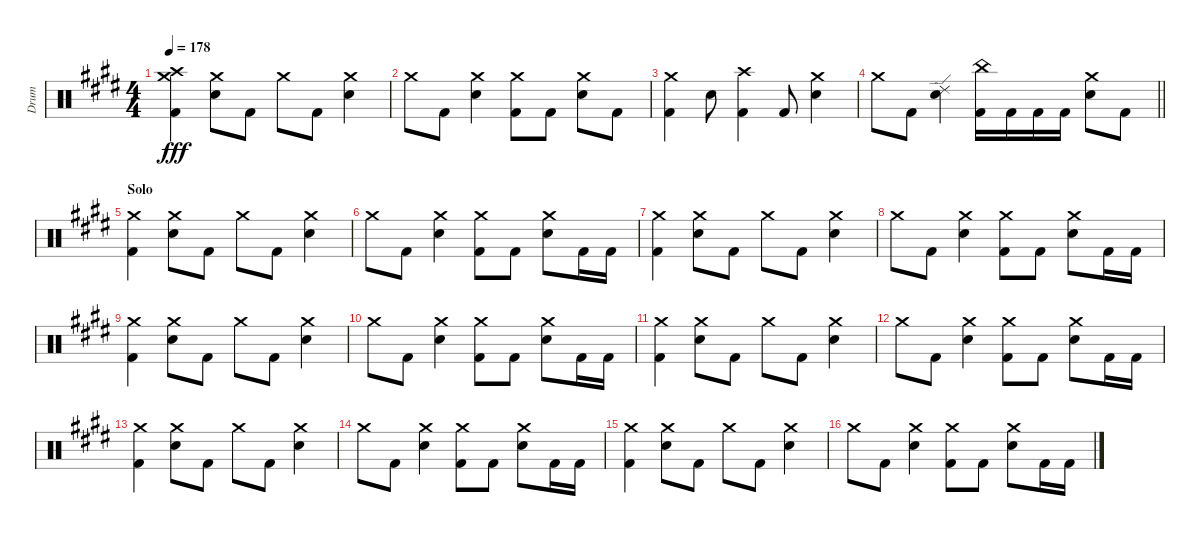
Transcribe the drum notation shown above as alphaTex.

\track ("Drum" "Drum") {instrument percussion}
\staff {score}
\articulation defaults
\ts (4 4)
\tempo 178
\clef neutral
\ks e
("Crash medium (hit)" "Crash high (hit)" "Kick (hit) 2").4{dy fff} ("Crash medium (hit)" "Electric Snare (hit)").8 "Kick (hit) 2".8 "Crash medium (hit)".8 "Kick (hit) 2".8 ("Crash medium (hit)" "Electric Snare (hit)").4 |
"Crash medium (hit)".8 "Kick (hit) 2".8 ("Crash medium (hit)" "Electric Snare (hit)").4 ("Crash medium (hit)" "Kick (hit) 2").8 "Kick (hit) 2".8 ("Crash medium (hit)" "Electric Snare (hit)").8 "Kick (hit) 2".8 |
("Crash medium (hit)" "Kick (hit) 2").4 "Electric Snare (hit)".8 ("Crash high (hit)" "Kick (hit) 2").4 "Kick (hit) 2".8 ("Crash medium (hit)" "Electric Snare (hit)").4 |
\barLineRight lightlight "Crash medium (hit)".8 "Kick (hit) 2".8
("Ride (edge) 2" "Electric Snare (hit)").4 ("China (hit)" "Kick (hit) 2").16 "Kick (hit) 2".16 "Kick (hit) 2".16 "Kick (hit) 2".16 ("Crash medium (hit)" "Electric Snare (hit)").8 "Kick (hit) 2".8 |
\section ("" "Solo")
("Crash medium (hit)" "Kick (hit) 2").4 ("Crash medium (hit)" "Electric Snare (hit)").8 "Kick (hit) 2".8 "Crash medium (hit)".8 "Kick (hit) 2".8 ("Crash medium (hit)" "Electric Snare (hit)").4 |
"Crash medium (hit)".8 "Kick (hit) 2".8 ("Crash medium (hit)" "Electric Snare (hit)").4 ("Crash medium (hit)" "Kick (hit) 2").8 "Kick (hit) 2".8 ("Crash medium (hit)" "Electric Snare (hit)").8 "Kick (hit) 2".16 "Kick (hit) 2".16 |
("Crash medium (hit)" "Kick (hit) 2").4 ("Crash medium (hit)" "Electric Snare (hit)").8 "Kick (hit) 2".8 "Crash medium (hit)".8 "Kick (hit) 2".8 ("Crash medium (hit)" "Electric Snare (hit)").4 |
"Crash medium (hit)".8 "Kick (hit) 2".8 ("Crash medium (hit)" "Electric Snare (hit)").4 ("Crash medium (hit)" "Kick (hit) 2").8 "Kick (hit) 2".8 ("Crash medium (hit)" "Electric Snare (hit)").8 "Kick (hit) 2".16 "Kick (hit) 2".16 |
("Crash medium (hit)" "Kick (hit) 2").4 ("Crash medium (hit)" "Electric Snare (hit)").8 "Kick (hit) 2".8 "Crash medium (hit)".8 "Kick (hit) 2".8 ("Crash medium (hit)" "Electric Snare (hit)").4 |
"Crash medium (hit)".8 "Kick (hit) 2".8 ("Crash medium (hit)" "Electric Snare (hit)").4 ("Crash medium (hit)" "Kick (hit) 2").8 "Kick (hit) 2".8 ("Crash medium (hit)" "Electric Snare (hit)").8 "Kick (hit) 2".16 "Kick (hit) 2".16 |
("Crash medium (hit)" "Kick (hit) 2").4 ("Crash medium (hit)" "Electric Snare (hit)").8 "Kick (hit) 2".8 "Crash medium (hit)".8 "Kick (hit) 2".8 ("Crash medium (hit)" "Electric Snare (hit)").4 |
"Crash medium (hit)".8 "Kick (hit) 2".8 ("Crash medium (hit)" "Electric Snare (hit)").4 ("Crash medium (hit)" "Kick (hit) 2").8 "Kick (hit) 2".8 ("Crash medium (hit)" "Electric Snare (hit)").8 "Kick (hit) 2".16 "Kick (hit) 2".16 |
("Crash medium (hit)" "Kick (hit) 2").4 ("Crash medium (hit)" "Electric Snare (hit)").8 "Kick (hit) 2".8 "Crash medium (hit)".8 "Kick (hit) 2".8 ("Crash medium (hit)" "Electric Snare (hit)").4 |
"Crash medium (hit)".8 "Kick (hit) 2".8 ("Crash medium (hit)" "Electric Snare (hit)").4 ("Crash medium (hit)" "Kick (hit) 2").8 "Kick (hit) 2".8 ("Crash medium (hit)" "Electric Snare (hit)").8 "Kick (hit) 2".16 "Kick (hit) 2".16 |
("Crash medium (hit)" "Kick (hit) 2").4 ("Crash medium (hit)" "Electric Snare (hit)").8 "Kick (hit) 2".8 "Crash medium (hit)".8 "Kick (hit) 2".8 ("Crash medium (hit)" "Electric Snare (hit)").4 |
"Crash medium (hit)".8 "Kick (hit) 2".8 ("Crash medium (hit)" "Electric Snare (hit)").4 ("Crash medium (hit)" "Kick (hit) 2").8 "Kick (hit) 2".8 ("Crash medium (hit)" "Electric Snare (hit)").8 "Kick (hit) 2".16 "Kick (hit) 2".16
